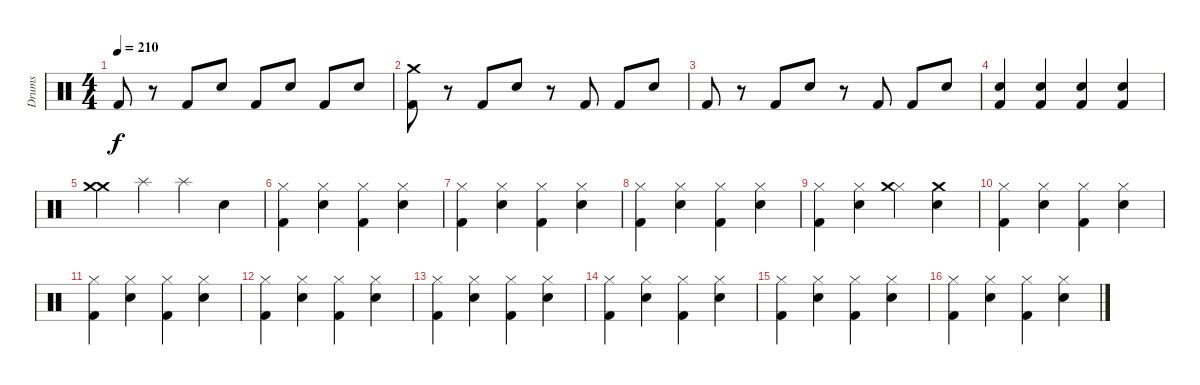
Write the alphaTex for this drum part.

\track ("Drums" "Drums") {instrument percussion}
\staff {score}
\articulation defaults
\ts (4 4)
\tempo 210
\clef neutral
\ks c "Kick (hit) 2".8{dy f}
r.8 "Kick (hit) 2".8 "Snare (hit) 2".8 "Kick (hit) 2".8 "Snare (hit) 2".8 "Kick (hit) 2".8 "Snare (hit) 2".8 |
("Crash medium (hit)" "Kick (hit) 2").8 r.8 "Kick (hit) 2".8 "Snare (hit) 2".8 r.8 "Kick (hit) 2".8 "Kick (hit) 2".8 "Snare (hit) 2".8 |
"Kick (hit) 2".8 r.8 "Kick (hit) 2".8 "Snare (hit) 2".8 r.8 "Kick (hit) 2".8 "Kick (hit) 2".8 "Snare (hit) 2".8 |
("Snare (hit) 2" "Kick (hit) 2").4 ("Snare (hit) 2" "Kick (hit) 2").4 ("Snare (hit) 2" "Kick (hit) 2").4 ("Snare (hit) 2" "Kick (hit) 2").4 |
("Crash medium (hit)" "Crash medium (hit)").4 "Splash (hit)".4 "Splash (hit)".4 "Snare (hit) 2".4 |
("Hi-Hat (closed)" "Kick (hit) 2").4 ("Hi-Hat (closed)" "Snare (hit) 2").4 ("Hi-Hat (closed)" "Kick (hit) 2").4 ("Hi-Hat (closed)" "Snare (hit) 2").4 |
("Hi-Hat (closed)" "Kick (hit) 2").4 ("Snare (hit) 2" "Hi-Hat (closed)").4 ("Hi-Hat (closed)" "Kick (hit) 2").4 ("Snare (hit) 2" "Hi-Hat (closed)").4 |
("Hi-Hat (closed)" "Kick (hit) 2").4 ("Snare (hit) 2" "Hi-Hat (closed)").4 ("Hi-Hat (closed)" "Kick (hit) 2").4 ("Snare (hit) 2" "Hi-Hat (closed)").4 |
("Hi-Hat (closed)" "Kick (hit) 2").4 ("Snare (hit) 2" "Hi-Hat (closed)").4 ("Hi-Hat (closed)" "Crash medium (hit)").4 ("Snare (hit) 2" "Crash medium (hit)").4 |
("Hi-Hat (closed)" "Kick (hit) 2").4 ("Snare (hit) 2" "Hi-Hat (closed)").4 ("Hi-Hat (closed)" "Kick (hit) 2").4 ("Snare (hit) 2" "Hi-Hat (closed)").4 |
("Hi-Hat (closed)" "Kick (hit) 2").4 ("Snare (hit) 2" "Hi-Hat (closed)").4 ("Hi-Hat (closed)" "Kick (hit) 2").4 ("Snare (hit) 2" "Hi-Hat (closed)").4 |
("Hi-Hat (closed)" "Kick (hit) 2").4 ("Snare (hit) 2" "Hi-Hat (closed)").4 ("Hi-Hat (closed)" "Kick (hit) 2").4 ("Snare (hit) 2" "Hi-Hat (closed)").4 |
("Hi-Hat (closed)" "Kick (hit) 2").4 ("Snare (hit) 2" "Hi-Hat (closed)").4 ("Hi-Hat (closed)" "Kick (hit) 2").4 ("Snare (hit) 2" "Hi-Hat (closed)").4 |
("Hi-Hat (closed)" "Kick (hit) 2").4 ("Snare (hit) 2" "Hi-Hat (closed)").4 ("Hi-Hat (closed)" "Kick (hit) 2").4 ("Snare (hit) 2" "Hi-Hat (closed)").4 |
("Hi-Hat (closed)" "Kick (hit) 2").4 ("Snare (hit) 2" "Hi-Hat (closed)").4 ("Hi-Hat (closed)" "Kick (hit) 2").4 ("Snare (hit) 2" "Hi-Hat (closed)").4 |
("Hi-Hat (closed)" "Kick (hit) 2").4 ("Snare (hit) 2" "Hi-Hat (closed)").4 ("Hi-Hat (closed)" "Kick (hit) 2").4 ("Snare (hit) 2" "Hi-Hat (closed)").4
